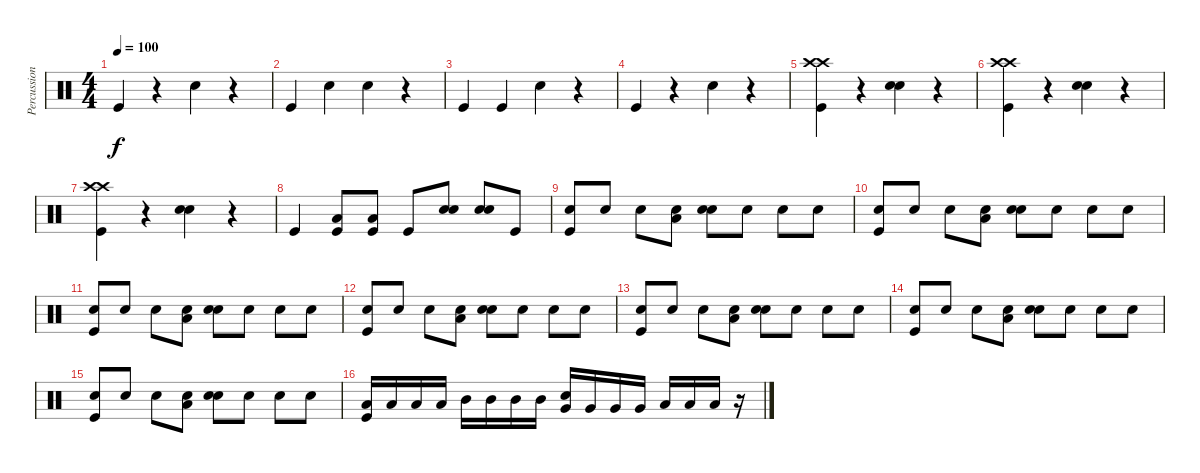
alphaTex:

\track ("Percussions" "Percussion") {instrument percussion}
\staff {score}
\articulation defaults
\ts (4 4)
\tempo 100
\clef neutral
\ks c "Kick (hit)".4{dy f}
r.4 "Hand Clap (hit)".4 r.4 |
"Kick (hit)".4 "Hand Clap (hit)".4 "Hand Clap (hit)".4 r.4 |
"Kick (hit)".4 "Kick (hit)".4 "Hand Clap (hit)".4 r.4 |
"Kick (hit)".4 r.4 "Hand Clap (hit)".4 r.4 |
("Crash high (hit)" "Crash high (hit)" "Kick (hit)").4 r.4 ("Hand Clap (hit)" "Hand Clap (hit)").4 r.4 |
("Crash high (hit)" "Crash high (hit)" "Kick (hit)").4 r.4 ("Hand Clap (hit)" "Hand Clap (hit)").4 r.4 |
("Crash high (hit)" "Crash high (hit)" "Kick (hit)").4 r.4 ("Hand Clap (hit)" "Hand Clap (hit)").4 r.4 |
"Kick (hit)".4 ("Low Floor Tom (hit)" "Kick (hit)").8 ("Low Floor Tom (hit)" "Kick (hit)").8 "Kick (hit)".8 ("Hand Clap (hit)" "Hand Clap (hit)").8 ("Hand Clap (hit)" "Hand Clap (hit)").8 "Kick (hit)".8 |
("Kick (hit)" "Snare (hit) 2").8 "Snare (hit) 2".8 "Snare (hit) 2".8 ("Low Tom (hit)" "Snare (hit) 2").8 ("Hand Clap (hit)" "Snare (hit) 2").8 "Snare (hit) 2".8 "Snare (hit) 2".8 "Snare (hit) 2".8 |
("Kick (hit)" "Snare (hit) 2").8 "Snare (hit) 2".8 "Snare (hit) 2".8 ("Low Tom (hit)" "Snare (hit) 2").8 ("Hand Clap (hit)" "Snare (hit) 2").8 "Snare (hit) 2".8 "Snare (hit) 2".8 "Snare (hit) 2".8 |
("Kick (hit)" "Snare (hit) 2").8 "Snare (hit) 2".8 "Snare (hit) 2".8 ("Low Tom (hit)" "Snare (hit) 2").8 ("Hand Clap (hit)" "Snare (hit) 2").8 "Snare (hit) 2".8 "Snare (hit) 2".8 "Snare (hit) 2".8 |
("Kick (hit)" "Snare (hit) 2").8 "Snare (hit) 2".8 "Snare (hit) 2".8 ("Low Tom (hit)" "Snare (hit) 2").8 ("Hand Clap (hit)" "Snare (hit) 2").8 "Snare (hit) 2".8 "Snare (hit) 2".8 "Snare (hit) 2".8 |
("Kick (hit)" "Snare (hit) 2").8 "Snare (hit) 2".8 "Snare (hit) 2".8 ("Low Tom (hit)" "Snare (hit) 2").8 ("Hand Clap (hit)" "Snare (hit) 2").8 "Snare (hit) 2".8 "Snare (hit) 2".8 "Snare (hit) 2".8 |
("Kick (hit)" "Snare (hit) 2").8 "Snare (hit) 2".8 "Snare (hit) 2".8 ("Low Tom (hit)" "Snare (hit) 2").8 ("Hand Clap (hit)" "Snare (hit) 2").8 "Snare (hit) 2".8 "Snare (hit) 2".8 "Snare (hit) 2".8 |
("Kick (hit)" "Snare (hit) 2").8 "Snare (hit) 2".8 "Snare (hit) 2".8 ("Low Tom (hit)" "Snare (hit) 2").8 ("Hand Clap (hit)" "Snare (hit) 2").8 "Snare (hit) 2".8 "Snare (hit) 2".8 "Snare (hit) 2".8 |
("Kick (hit)" "Low Tom (hit)").16 "Low Tom (hit)".16 "Low Tom (hit)".16 "Low Tom (hit)".16 "Mid Tom (hit)".16 "Mid Tom (hit)".16 "Mid Tom (hit)".16 "Mid Tom (hit)".16 ("Hand Clap (hit)" "Very Low Tom (hit)").16 "Very Low Tom (hit)".16 "Very Low Tom (hit)".16 "Very Low Tom (hit)".16 "Low Tom (hit)".16 "Low Tom (hit)".16 "Low Tom (hit)".16 r.16
